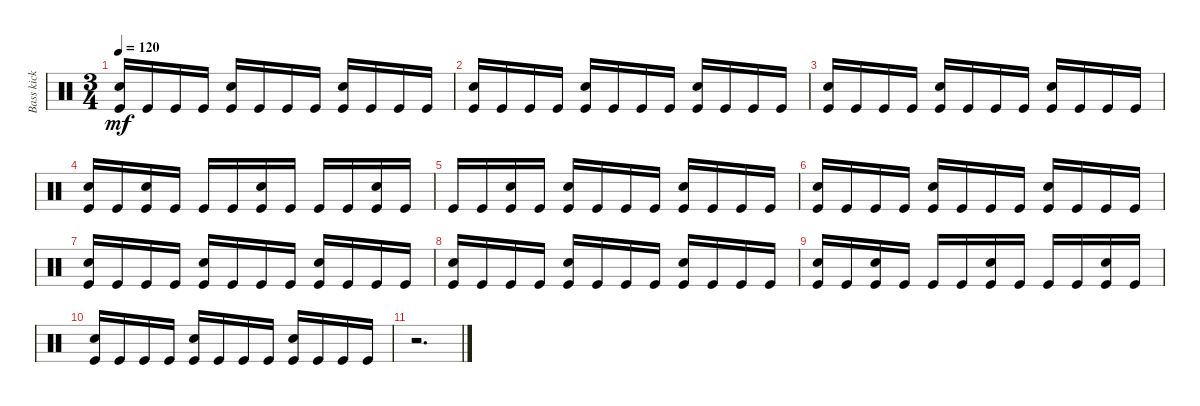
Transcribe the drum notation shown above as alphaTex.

\track ("Bass kick" "Bass kick") {instrument percussion}
\staff {score}
\articulation defaults
\ts (3 4)
\tempo 120
\clef neutral
\ks c
("Kick (hit)" "Snare (hit) 2").16{dy mf} "Kick (hit)".16 "Kick (hit)".16 "Kick (hit)".16 ("Kick (hit)" "Snare (hit) 2").16 "Kick (hit)".16 "Kick (hit)".16 "Kick (hit)".16 ("Kick (hit)" "Snare (hit) 2").16 "Kick (hit)".16 "Kick (hit)".16 "Kick (hit)".16 |
("Kick (hit)" "Snare (hit) 2").16 "Kick (hit)".16 "Kick (hit)".16 "Kick (hit)".16 ("Kick (hit)" "Snare (hit) 2").16 "Kick (hit)".16 "Kick (hit)".16 "Kick (hit)".16 ("Kick (hit)" "Snare (hit) 2").16 "Kick (hit)".16 "Kick (hit)".16 "Kick (hit)".16 |
("Kick (hit)" "Snare (hit) 2").16 "Kick (hit)".16 "Kick (hit)".16 "Kick (hit)".16 ("Kick (hit)" "Snare (hit) 2").16 "Kick (hit)".16 "Kick (hit)".16 "Kick (hit)".16 ("Kick (hit)" "Snare (hit) 2").16 "Kick (hit)".16 "Kick (hit)".16 "Kick (hit)".16 |
("Kick (hit)" "Snare (hit) 2").16 "Kick (hit)".16 ("Kick (hit)" "Snare (hit) 2").16 "Kick (hit)".16 "Kick (hit)".16 "Kick (hit)".16 ("Kick (hit)" "Snare (hit) 2").16 "Kick (hit)".16 "Kick (hit)".16 "Kick (hit)".16 ("Kick (hit)" "Snare (hit) 2").16 "Kick (hit)".16 |
"Kick (hit)".16 "Kick (hit)".16 ("Kick (hit)" "Snare (hit) 2").16 "Kick (hit)".16 ("Kick (hit)" "Snare (hit) 2").16 "Kick (hit)".16 "Kick (hit)".16 "Kick (hit)".16 ("Kick (hit)" "Snare (hit) 2").16 "Kick (hit)".16 "Kick (hit)".16 "Kick (hit)".16 |
("Kick (hit)" "Snare (hit) 2").16 "Kick (hit)".16 "Kick (hit)".16 "Kick (hit)".16 ("Kick (hit)" "Snare (hit) 2").16 "Kick (hit)".16 "Kick (hit)".16 "Kick (hit)".16 ("Kick (hit)" "Snare (hit) 2").16 "Kick (hit)".16 "Kick (hit)".16 "Kick (hit)".16 |
("Kick (hit)" "Snare (hit) 2").16 "Kick (hit)".16 "Kick (hit)".16 "Kick (hit)".16 ("Kick (hit)" "Snare (hit) 2").16 "Kick (hit)".16 "Kick (hit)".16 "Kick (hit)".16 ("Kick (hit)" "Snare (hit) 2").16 "Kick (hit)".16 "Kick (hit)".16 "Kick (hit)".16 |
("Kick (hit)" "Snare (hit) 2").16 "Kick (hit)".16 "Kick (hit)".16 "Kick (hit)".16 ("Kick (hit)" "Snare (hit) 2").16 "Kick (hit)".16 "Kick (hit)".16 "Kick (hit)".16 ("Kick (hit)" "Snare (hit) 2").16 "Kick (hit)".16 "Kick (hit)".16 "Kick (hit)".16 |
("Kick (hit)" "Snare (hit) 2").16 "Kick (hit)".16 ("Kick (hit)" "Snare (hit) 2").16 "Kick (hit)".16 "Kick (hit)".16 "Kick (hit)".16 ("Kick (hit)" "Snare (hit) 2").16 "Kick (hit)".16 "Kick (hit)".16 "Kick (hit)".16 ("Kick (hit)" "Snare (hit) 2").16 "Kick (hit)".16 |
("Kick (hit)" "Snare (hit) 2").16 "Kick (hit)".16 "Kick (hit)".16 "Kick (hit)".16 ("Kick (hit)" "Snare (hit) 2").16 "Kick (hit)".16 "Kick (hit)".16 "Kick (hit)".16 ("Kick (hit)" "Snare (hit) 2").16 "Kick (hit)".16 "Kick (hit)".16 "Kick (hit)".16 |
r.2{d}
